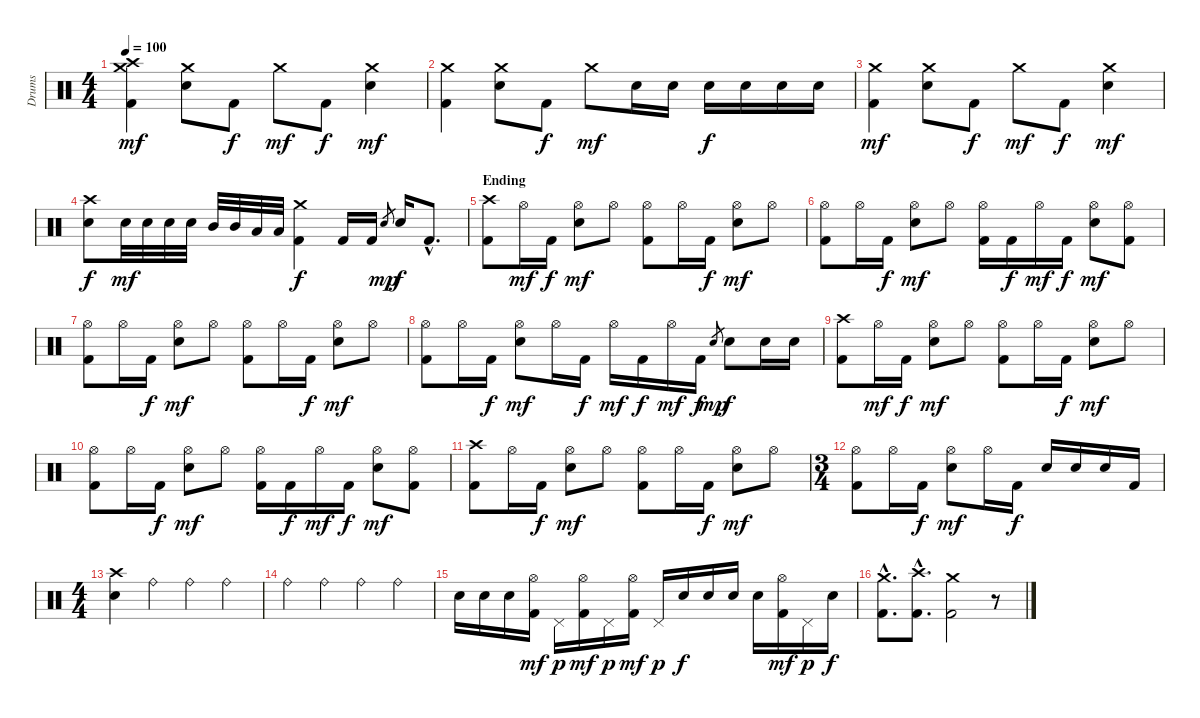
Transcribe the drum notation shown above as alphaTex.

\track ("Drums" "Drums") {instrument percussion}
\staff {score}
\articulation defaults
\ts (4 4)
\tempo 100
\clef neutral
\ks c
("Crash medium (hit)" "Crash high (hit)" "Kick (hit) 2").4{dy mf} ("Crash medium (hit)" "Electric Snare (hit)").8 "Kick (hit) 2".8{dy f} "Crash medium (hit)".8{dy mf} "Kick (hit) 2".8{dy f} ("Crash medium (hit)" "Electric Snare (hit)").4{dy mf} |
("Crash medium (hit)" "Kick (hit) 2").4 ("Crash medium (hit)" "Electric Snare (hit)").8 "Kick (hit) 2".8{dy f} "Crash medium (hit)".8{dy mf} "Electric Snare (hit)".16 "Electric Snare (hit)".16 "Electric Snare (hit)".16{dy f} "Electric Snare (hit)".16 "Electric Snare (hit)".16 "Electric Snare (hit)".16 |
("Crash medium (hit)" "Kick (hit) 2").4{dy mf} ("Crash medium (hit)" "Electric Snare (hit)").8 "Kick (hit) 2".8{dy f} "Crash medium (hit)".8{dy mf} "Kick (hit) 2".8{dy f} ("Crash medium (hit)" "Electric Snare (hit)").4{dy mf} |
("Crash high (hit)" "Electric Snare (hit)").8{dy f} "Electric Snare (hit)".32{dy mf} "Electric Snare (hit)".32 "Electric Snare (hit)".32 "Electric Snare (hit)".32 "Mid Tom (hit)".32 "Mid Tom (hit)".32 "Low Tom (hit)".32 "Low Tom (hit)".32 ("Crash medium (hit)" "Kick (hit) 2").4{dy f} "Kick (hit) 2".16 "Kick (hit) 2".16 "Electric Snare (hit)".8{gr dy mp} "Electric Snare (hit)".16{dy f} "Kick (hit) 2"{hac}.8{d} |
\section ("" "Ending")
("Crash high (hit)" "Kick (hit) 2").8 "Hi-Hat (open)".16{dy mf} "Kick (hit) 2".16{dy f} ("Hi-Hat (open)" "Electric Snare (hit)").8{dy mf} "Hi-Hat (open)".8 ("Hi-Hat (open)" "Kick (hit) 2").8 "Hi-Hat (open)".16 "Kick (hit) 2".16{dy f} ("Hi-Hat (open)" "Electric Snare (hit)").8{dy mf} "Hi-Hat (open)".8 |
("Hi-Hat (open)" "Kick (hit) 2").8 "Hi-Hat (open)".16 "Kick (hit) 2".16{dy f} ("Hi-Hat (open)" "Electric Snare (hit)").8{dy mf} "Hi-Hat (open)".8 ("Hi-Hat (open)" "Kick (hit) 2").16 "Kick (hit) 2".16{dy f} "Hi-Hat (open)".16{dy mf} "Kick (hit) 2".16{dy f} ("Hi-Hat (open)" "Electric Snare (hit)").8{dy mf} ("Hi-Hat (open)" "Kick (hit) 2").8 |
("Hi-Hat (open)" "Kick (hit) 2").8 "Hi-Hat (open)".16 "Kick (hit) 2".16{dy f} ("Hi-Hat (open)" "Electric Snare (hit)").8{dy mf} "Hi-Hat (open)".8 ("Hi-Hat (open)" "Kick (hit) 2").8 "Hi-Hat (open)".16 "Kick (hit) 2".16{dy f} ("Hi-Hat (open)" "Electric Snare (hit)").8{dy mf} "Hi-Hat (open)".8 |
("Hi-Hat (open)" "Kick (hit) 2").8 "Hi-Hat (open)".16 "Kick (hit) 2".16{dy f} ("Hi-Hat (open)" "Electric Snare (hit)").8{dy mf} "Hi-Hat (open)".16 "Kick (hit) 2".16{dy f} "Hi-Hat (open)".16{dy mf} "Kick (hit) 2".16{dy f} "Hi-Hat (open)".16{dy mf} "Kick (hit) 2".16{dy f} "Electric Snare (hit)".8{gr dy mp} "Electric Snare (hit)".8{dy f} "Electric Snare (hit)".16 "Electric Snare (hit)".16 |
("Crash high (hit)" "Kick (hit) 2").8 "Hi-Hat (open)".16{dy mf} "Kick (hit) 2".16{dy f} ("Hi-Hat (open)" "Electric Snare (hit)").8{dy mf} "Hi-Hat (open)".8 ("Hi-Hat (open)" "Kick (hit) 2").8 "Hi-Hat (open)".16 "Kick (hit) 2".16{dy f} ("Hi-Hat (open)" "Electric Snare (hit)").8{dy mf} "Hi-Hat (open)".8 |
("Hi-Hat (open)" "Kick (hit) 2").8 "Hi-Hat (open)".16 "Kick (hit) 2".16{dy f} ("Hi-Hat (open)" "Electric Snare (hit)").8{dy mf} "Hi-Hat (open)".8 ("Hi-Hat (open)" "Kick (hit) 2").16 "Kick (hit) 2".16{dy f} "Hi-Hat (open)".16{dy mf} "Kick (hit) 2".16{dy f} ("Hi-Hat (open)" "Electric Snare (hit)").8{dy mf} ("Hi-Hat (open)" "Kick (hit) 2").8 |
("Crash high (hit)" "Kick (hit) 2").8 "Hi-Hat (open)".16 "Kick (hit) 2".16{dy f} ("Hi-Hat (open)" "Electric Snare (hit)").8{dy mf} "Hi-Hat (open)".8 ("Hi-Hat (open)" "Kick (hit) 2").8 "Hi-Hat (open)".16 "Kick (hit) 2".16{dy f} ("Hi-Hat (open)" "Electric Snare (hit)").8{dy mf} "Hi-Hat (open)".8 |
\ts (3 4)
("Hi-Hat (open)" "Kick (hit) 2").8 "Hi-Hat (open)".16 "Kick (hit) 2".16{dy f} ("Hi-Hat (open)" "Electric Snare (hit)").8{dy mf} "Hi-Hat (open)".16 "Kick (hit) 2".16{dy f} "Electric Snare (hit)".16 "Electric Snare (hit)".16 "Electric Snare (hit)".16 "Kick (hit) 2".16 |
\ts (4 4)
("Crash high (hit)" "Electric Snare (hit)").4 "Ride (bell)".4 "Ride (bell)".4 "Ride (bell)".4 |
"Ride (bell)".4 "Ride (bell)".4 "Ride (bell)".4 "Ride (bell)".4 |
"Electric Snare (hit)".16 "Electric Snare (hit)".16 "Electric Snare (hit)".16 ("Hi-Hat (open)" "Kick (hit) 2").16{dy mf} "Pedal Hi-Hat (hit)".16{dy p} ("Hi-Hat (open)" "Kick (hit) 2").16{dy mf} "Pedal Hi-Hat (hit)".16{dy p} ("Hi-Hat (open)" "Kick (hit) 2").16{dy mf} "Pedal Hi-Hat (hit)".16{dy p} "Electric Snare (hit)".16{dy f} "Electric Snare (hit)".16 "Electric Snare (hit)".16 "Electric Snare (hit)".16 ("Hi-Hat (open)" "Kick (hit) 2").16{dy mf} "Pedal Hi-Hat (hit)".16{dy p} "Electric Snare (hit)".16{dy f} |
("Crash medium (hit)"{hac} "Kick (hit) 2"{hac}).8{d} ("Crash high (hit)"{hac} "Kick (hit) 2"{hac}).8{d} ("Crash medium (hit)" "Kick (hit) 2").2 r.8
